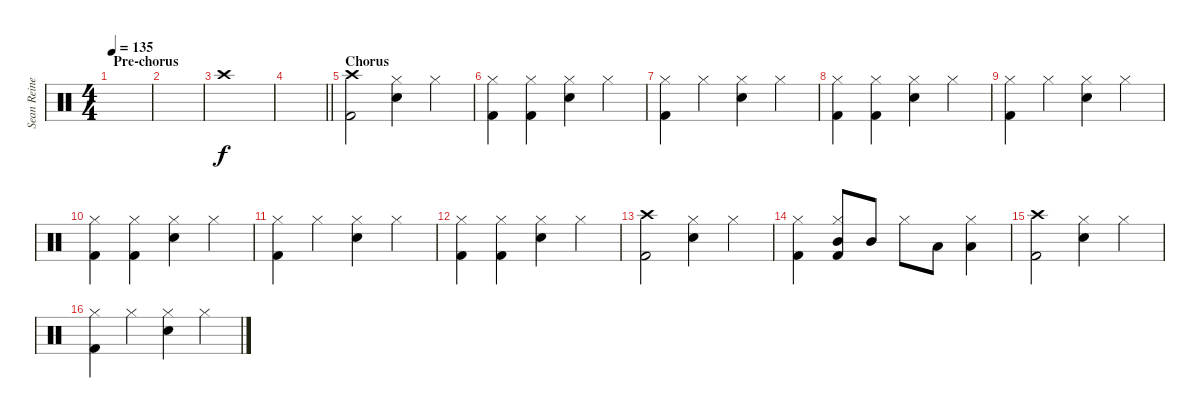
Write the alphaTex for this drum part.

\track ("Sean Reinert" "Sean Reine") {instrument percussion}
\staff {score}
\articulation defaults
\ts (4 4)
\section ("" "Pre-chorus")
\tempo 135
\clef neutral
\ks c
|
|
"Crash high (hit)".1 |
\barLineRight lightlight
|
\section ("" "Chorus")
("Crash high (hit)" "Kick (hit) 2").2 ("Hi-Hat (closed)" "Snare (hit) 2").4 "Hi-Hat (closed)".4 |
("Hi-Hat (closed)" "Kick (hit) 2").4 ("Hi-Hat (closed)" "Kick (hit) 2").4 ("Hi-Hat (closed)" "Snare (hit) 2").4 "Hi-Hat (closed)".4 |
("Hi-Hat (closed)" "Kick (hit) 2").4 "Hi-Hat (closed)".4 ("Hi-Hat (closed)" "Snare (hit) 2").4 "Hi-Hat (closed)".4 |
("Hi-Hat (closed)" "Kick (hit) 2").4 ("Hi-Hat (closed)" "Kick (hit) 2").4 ("Hi-Hat (closed)" "Snare (hit) 2").4 "Hi-Hat (closed)".4 |
("Hi-Hat (closed)" "Kick (hit) 2").4 "Hi-Hat (closed)".4 ("Hi-Hat (closed)" "Snare (hit) 2").4 "Hi-Hat (closed)".4 |
("Hi-Hat (closed)" "Kick (hit) 2").4 ("Hi-Hat (closed)" "Kick (hit) 2").4 ("Hi-Hat (closed)" "Snare (hit) 2").4 "Hi-Hat (closed)".4 |
("Hi-Hat (closed)" "Kick (hit) 2").4 "Hi-Hat (closed)".4 ("Hi-Hat (closed)" "Snare (hit) 2").4 "Hi-Hat (closed)".4 |
("Hi-Hat (closed)" "Kick (hit) 2").4 ("Hi-Hat (closed)" "Kick (hit) 2").4 ("Hi-Hat (closed)" "Snare (hit) 2").4 "Hi-Hat (closed)".4 |
("Crash high (hit)" "Kick (hit) 2").2 ("Hi-Hat (closed)" "Snare (hit) 2").4 "Hi-Hat (closed)".4 |
("Hi-Hat (closed)" "Kick (hit) 2").4 ("Hi-Hat (closed)" "Mid Tom (hit)" "Kick (hit) 2").8 "Mid Tom (hit)".8 "Hi-Hat (closed)".8 "Low Tom (hit)".8 ("Hi-Hat (closed)" "Low Tom (hit)").4 |
("Crash high (hit)" "Kick (hit) 2").2 ("Hi-Hat (closed)" "Snare (hit) 2").4 "Hi-Hat (closed)".4 |
("Hi-Hat (closed)" "Kick (hit) 2").4 "Hi-Hat (closed)".4 ("Hi-Hat (closed)" "Snare (hit) 2").4 "Hi-Hat (closed)".4
